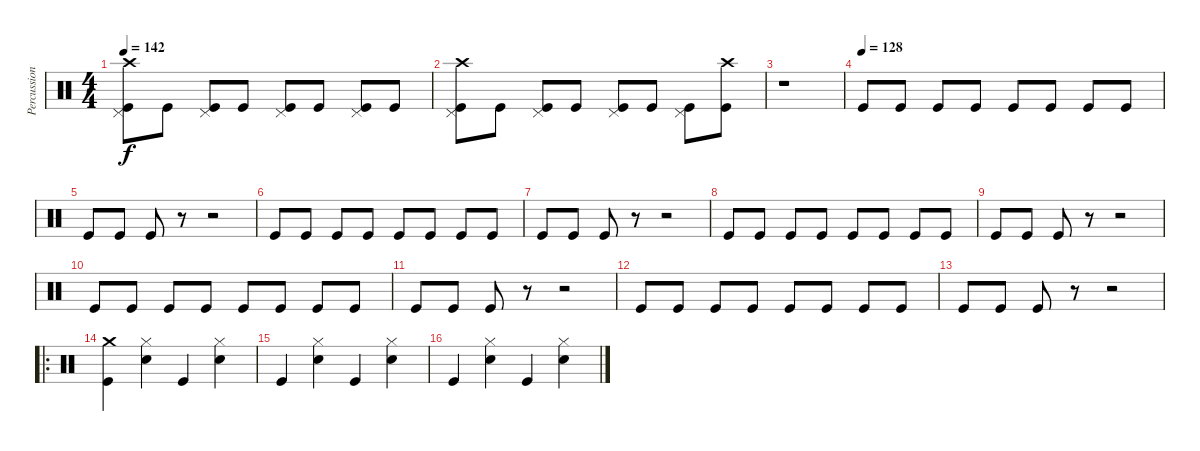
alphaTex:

\track ("Percussion" "Percussion") {instrument percussion}
\staff {score}
\articulation defaults
\ts (4 4)
\tempo 142
\clef neutral
\ks c
("Crash high (hit)" "Pedal Hi-Hat (hit)" "Kick (hit)").8{dy f} "Kick (hit)".8 ("Pedal Hi-Hat (hit)" "Kick (hit)").8 "Kick (hit)".8 ("Pedal Hi-Hat (hit)" "Kick (hit)").8 "Kick (hit)".8 ("Pedal Hi-Hat (hit)" "Kick (hit)").8 "Kick (hit)".8 |
("Crash high (hit)" "Pedal Hi-Hat (hit)" "Kick (hit)").8 "Kick (hit)".8 ("Pedal Hi-Hat (hit)" "Kick (hit)").8 "Kick (hit)".8 ("Pedal Hi-Hat (hit)" "Kick (hit)").8 "Kick (hit)".8 ("Pedal Hi-Hat (hit)" "Kick (hit)").8 ("Crash high (hit)" "Kick (hit)").8 |
r.1 |
\tempo (128)
"Kick (hit)".8 "Kick (hit)".8 "Kick (hit)".8 "Kick (hit)".8 "Kick (hit)".8 "Kick (hit)".8 "Kick (hit)".8 "Kick (hit)".8 |
"Kick (hit)".8 "Kick (hit)".8 "Kick (hit)".8 r.8 r.2 |
"Kick (hit)".8 "Kick (hit)".8 "Kick (hit)".8 "Kick (hit)".8 "Kick (hit)".8 "Kick (hit)".8 "Kick (hit)".8 "Kick (hit)".8 |
"Kick (hit)".8 "Kick (hit)".8 "Kick (hit)".8 r.8 r.2 |
"Kick (hit)".8 "Kick (hit)".8 "Kick (hit)".8 "Kick (hit)".8 "Kick (hit)".8 "Kick (hit)".8 "Kick (hit)".8 "Kick (hit)".8 |
"Kick (hit)".8 "Kick (hit)".8 "Kick (hit)".8 r.8 r.2 |
"Kick (hit)".8 "Kick (hit)".8 "Kick (hit)".8 "Kick (hit)".8 "Kick (hit)".8 "Kick (hit)".8 "Kick (hit)".8 "Kick (hit)".8 |
"Kick (hit)".8 "Kick (hit)".8 "Kick (hit)".8 r.8 r.2 |
"Kick (hit)".8 "Kick (hit)".8 "Kick (hit)".8 "Kick (hit)".8 "Kick (hit)".8 "Kick (hit)".8 "Kick (hit)".8 "Kick (hit)".8 |
"Kick (hit)".8 "Kick (hit)".8 "Kick (hit)".8 r.8 r.2 |
\ro
("Crash medium (hit)" "Kick (hit)").4 ("Snare (hit) 2" "Hi-Hat (closed)").4 "Kick (hit)".4 ("Snare (hit) 2" "Hi-Hat (closed)").4 |
"Kick (hit)".4 ("Snare (hit) 2" "Hi-Hat (closed)").4 "Kick (hit)".4 ("Snare (hit) 2" "Hi-Hat (closed)").4 |
"Kick (hit)".4 ("Snare (hit) 2" "Hi-Hat (closed)").4 "Kick (hit)".4 ("Snare (hit) 2" "Hi-Hat (closed)").4
